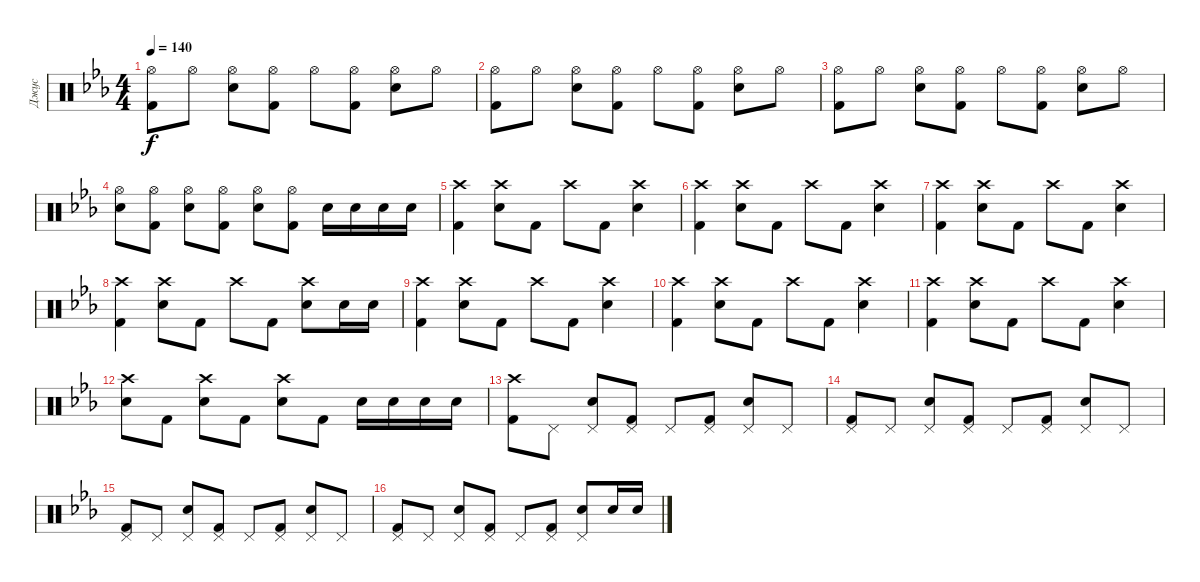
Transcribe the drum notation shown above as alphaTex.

\track ("Джус" "Джус") {instrument percussion}
\staff {score}
\articulation defaults
\ts (4 4)
\tempo 140
\clef neutral
\ks eb
("Hi-Hat (open)" "Kick (hit) 2").8{dy f} "Hi-Hat (open)".8 ("Hi-Hat (open)" "Electric Snare (hit)").8 ("Hi-Hat (open)" "Kick (hit) 2").8 "Hi-Hat (open)".8 ("Hi-Hat (open)" "Kick (hit) 2").8 ("Hi-Hat (open)" "Electric Snare (hit)").8 "Hi-Hat (open)".8 |
("Hi-Hat (open)" "Kick (hit) 2").8 "Hi-Hat (open)".8 ("Hi-Hat (open)" "Electric Snare (hit)").8 ("Hi-Hat (open)" "Kick (hit) 2").8 "Hi-Hat (open)".8 ("Hi-Hat (open)" "Kick (hit) 2").8 ("Hi-Hat (open)" "Electric Snare (hit)").8 "Hi-Hat (open)".8 |
("Hi-Hat (open)" "Kick (hit) 2").8 "Hi-Hat (open)".8 ("Hi-Hat (open)" "Electric Snare (hit)").8 ("Hi-Hat (open)" "Kick (hit) 2").8 "Hi-Hat (open)".8 ("Hi-Hat (open)" "Kick (hit) 2").8 ("Hi-Hat (open)" "Electric Snare (hit)").8 "Hi-Hat (open)".8 |
("Hi-Hat (open)" "Electric Snare (hit)").8 ("Hi-Hat (open)" "Kick (hit) 2").8 ("Hi-Hat (open)" "Electric Snare (hit)").8 ("Hi-Hat (open)" "Kick (hit) 2").8 ("Hi-Hat (open)" "Electric Snare (hit)").8 ("Hi-Hat (open)" "Kick (hit) 2").8 "Electric Snare (hit)".16 "Electric Snare (hit)".16 "Electric Snare (hit)".16 "Electric Snare (hit)".16 |
("Crash high (hit)" "Kick (hit) 2").4 ("Crash high (hit)" "Electric Snare (hit)").8 "Kick (hit) 2".8 "Crash high (hit)".8 "Kick (hit) 2".8 ("Crash high (hit)" "Electric Snare (hit)").4 |
("Crash high (hit)" "Kick (hit) 2").4 ("Crash high (hit)" "Electric Snare (hit)").8 "Kick (hit) 2".8 "Crash high (hit)".8 "Kick (hit) 2".8 ("Crash high (hit)" "Electric Snare (hit)").4 |
("Crash high (hit)" "Kick (hit) 2").4 ("Crash high (hit)" "Electric Snare (hit)").8 "Kick (hit) 2".8 "Crash high (hit)".8 "Kick (hit) 2".8 ("Crash high (hit)" "Electric Snare (hit)").4 |
("Crash high (hit)" "Kick (hit) 2").4 ("Crash high (hit)" "Electric Snare (hit)").8 "Kick (hit) 2".8 "Crash high (hit)".8 "Kick (hit) 2".8 ("Crash high (hit)" "Electric Snare (hit)").8 "Electric Snare (hit)".16 "Electric Snare (hit)".16 |
("Crash high (hit)" "Kick (hit) 2").4 ("Crash high (hit)" "Electric Snare (hit)").8 "Kick (hit) 2".8 "Crash high (hit)".8 "Kick (hit) 2".8 ("Crash high (hit)" "Electric Snare (hit)").4 |
("Crash high (hit)" "Kick (hit) 2").4 ("Crash high (hit)" "Electric Snare (hit)").8 "Kick (hit) 2".8 "Crash high (hit)".8 "Kick (hit) 2".8 ("Crash high (hit)" "Electric Snare (hit)").4 |
("Crash high (hit)" "Kick (hit) 2").4 ("Crash high (hit)" "Electric Snare (hit)").8 "Kick (hit) 2".8 "Crash high (hit)".8 "Kick (hit) 2".8 ("Crash high (hit)" "Electric Snare (hit)").4 |
("Crash high (hit)" "Electric Snare (hit)").8 "Kick (hit) 2".8 ("Crash high (hit)" "Electric Snare (hit)").8 "Kick (hit) 2".8 ("Crash high (hit)" "Electric Snare (hit)").8 "Kick (hit) 2".8 "Electric Snare (hit)".16 "Electric Snare (hit)".16 "Electric Snare (hit)".16 "Electric Snare (hit)".16 |
("Crash high (hit)" "Kick (hit) 2").8{volume 10} "Pedal Hi-Hat (hit)".8 ("Pedal Hi-Hat (hit)" "Electric Snare (hit)").8 ("Pedal Hi-Hat (hit)" "Kick (hit) 2").8 "Pedal Hi-Hat (hit)".8 ("Pedal Hi-Hat (hit)" "Kick (hit) 2").8 ("Pedal Hi-Hat (hit)" "Electric Snare (hit)").8 "Pedal Hi-Hat (hit)".8 |
("Pedal Hi-Hat (hit)" "Kick (hit) 2").8 "Pedal Hi-Hat (hit)".8 ("Pedal Hi-Hat (hit)" "Electric Snare (hit)").8 ("Pedal Hi-Hat (hit)" "Kick (hit) 2").8 "Pedal Hi-Hat (hit)".8 ("Pedal Hi-Hat (hit)" "Kick (hit) 2").8 ("Pedal Hi-Hat (hit)" "Electric Snare (hit)").8 "Pedal Hi-Hat (hit)".8 |
("Pedal Hi-Hat (hit)" "Kick (hit) 2").8 "Pedal Hi-Hat (hit)".8 ("Pedal Hi-Hat (hit)" "Electric Snare (hit)").8 ("Pedal Hi-Hat (hit)" "Kick (hit) 2").8 "Pedal Hi-Hat (hit)".8 ("Pedal Hi-Hat (hit)" "Kick (hit) 2").8 ("Pedal Hi-Hat (hit)" "Electric Snare (hit)").8 "Pedal Hi-Hat (hit)".8 |
("Pedal Hi-Hat (hit)" "Kick (hit) 2").8 "Pedal Hi-Hat (hit)".8 ("Pedal Hi-Hat (hit)" "Electric Snare (hit)").8 ("Pedal Hi-Hat (hit)" "Kick (hit) 2").8 "Pedal Hi-Hat (hit)".8 ("Pedal Hi-Hat (hit)" "Kick (hit) 2").8 ("Pedal Hi-Hat (hit)" "Electric Snare (hit)").8 "Electric Snare (hit)".16 "Electric Snare (hit)".16
